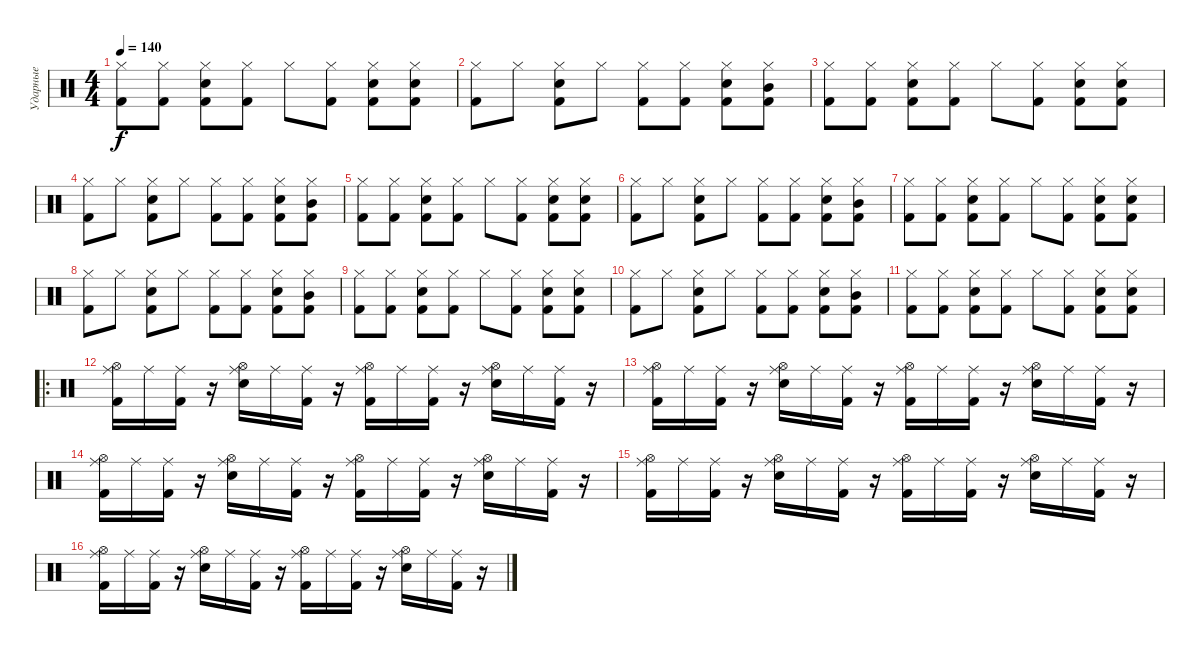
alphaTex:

\track ("Ударные" "Ударные") {instrument percussion}
\staff {score}
\articulation defaults
\ts (4 4)
\tempo 140
\clef neutral
\ks c
("Hi-Hat (closed)" "Kick (hit) 2").8{dy f} ("Hi-Hat (closed)" "Kick (hit) 2").8 ("Hi-Hat (closed)" "Kick (hit) 2" "Snare (hit) 2").8 ("Hi-Hat (closed)" "Kick (hit) 2").8 "Hi-Hat (closed)".8 ("Hi-Hat (closed)" "Kick (hit) 2").8 ("Hi-Hat (closed)" "Snare (hit) 2" "Kick (hit) 2").8 ("Snare (hit) 2" "Kick (hit) 2" "Hi-Hat (closed)").8 |
("Hi-Hat (closed)" "Kick (hit) 2").8 "Hi-Hat (closed)".8 ("Hi-Hat (closed)" "Kick (hit) 2" "Snare (hit) 2").8 "Hi-Hat (closed)".8 ("Hi-Hat (closed)" "Kick (hit) 2").8 ("Hi-Hat (closed)" "Kick (hit) 2").8 ("Hi-Hat (closed)" "Snare (hit) 2" "Kick (hit) 2").8 ("Mid Tom (hit)" "Kick (hit) 2" "Hi-Hat (closed)").8 |
("Hi-Hat (closed)" "Kick (hit) 2").8 ("Hi-Hat (closed)" "Kick (hit) 2").8 ("Hi-Hat (closed)" "Kick (hit) 2" "Snare (hit) 2").8 ("Hi-Hat (closed)" "Kick (hit) 2").8 "Hi-Hat (closed)".8 ("Hi-Hat (closed)" "Kick (hit) 2").8 ("Hi-Hat (closed)" "Snare (hit) 2" "Kick (hit) 2").8 ("Snare (hit) 2" "Kick (hit) 2" "Hi-Hat (closed)").8 |
("Hi-Hat (closed)" "Kick (hit) 2").8 "Hi-Hat (closed)".8 ("Hi-Hat (closed)" "Kick (hit) 2" "Snare (hit) 2").8 "Hi-Hat (closed)".8 ("Hi-Hat (closed)" "Kick (hit) 2").8 ("Hi-Hat (closed)" "Kick (hit) 2").8 ("Hi-Hat (closed)" "Snare (hit) 2" "Kick (hit) 2").8 ("Mid Tom (hit)" "Kick (hit) 2" "Hi-Hat (closed)").8 |
("Hi-Hat (closed)" "Kick (hit) 2").8 ("Hi-Hat (closed)" "Kick (hit) 2").8 ("Hi-Hat (closed)" "Kick (hit) 2" "Snare (hit) 2").8 ("Hi-Hat (closed)" "Kick (hit) 2").8 "Hi-Hat (closed)".8 ("Hi-Hat (closed)" "Kick (hit) 2").8 ("Hi-Hat (closed)" "Snare (hit) 2" "Kick (hit) 2").8 ("Snare (hit) 2" "Kick (hit) 2" "Hi-Hat (closed)").8 |
("Hi-Hat (closed)" "Kick (hit) 2").8 "Hi-Hat (closed)".8 ("Hi-Hat (closed)" "Kick (hit) 2" "Snare (hit) 2").8 "Hi-Hat (closed)".8 ("Hi-Hat (closed)" "Kick (hit) 2").8 ("Hi-Hat (closed)" "Kick (hit) 2").8 ("Hi-Hat (closed)" "Snare (hit) 2" "Kick (hit) 2").8 ("Mid Tom (hit)" "Kick (hit) 2" "Hi-Hat (closed)").8 |
("Hi-Hat (closed)" "Kick (hit) 2").8 ("Hi-Hat (closed)" "Kick (hit) 2").8 ("Hi-Hat (closed)" "Kick (hit) 2" "Snare (hit) 2").8 ("Hi-Hat (closed)" "Kick (hit) 2").8 "Hi-Hat (closed)".8 ("Hi-Hat (closed)" "Kick (hit) 2").8 ("Hi-Hat (closed)" "Snare (hit) 2" "Kick (hit) 2").8 ("Snare (hit) 2" "Kick (hit) 2" "Hi-Hat (closed)").8 |
("Hi-Hat (closed)" "Kick (hit) 2").8 "Hi-Hat (closed)".8 ("Hi-Hat (closed)" "Kick (hit) 2" "Snare (hit) 2").8 "Hi-Hat (closed)".8 ("Hi-Hat (closed)" "Kick (hit) 2").8 ("Hi-Hat (closed)" "Kick (hit) 2").8 ("Hi-Hat (closed)" "Snare (hit) 2" "Kick (hit) 2").8 ("Mid Tom (hit)" "Kick (hit) 2" "Hi-Hat (closed)").8 |
("Hi-Hat (closed)" "Kick (hit) 2").8 ("Hi-Hat (closed)" "Kick (hit) 2").8 ("Hi-Hat (closed)" "Kick (hit) 2" "Snare (hit) 2").8 ("Hi-Hat (closed)" "Kick (hit) 2").8 "Hi-Hat (closed)".8 ("Hi-Hat (closed)" "Kick (hit) 2").8 ("Hi-Hat (closed)" "Snare (hit) 2" "Kick (hit) 2").8 ("Snare (hit) 2" "Kick (hit) 2" "Hi-Hat (closed)").8 |
("Hi-Hat (closed)" "Kick (hit) 2").8 "Hi-Hat (closed)".8 ("Hi-Hat (closed)" "Kick (hit) 2" "Snare (hit) 2").8 "Hi-Hat (closed)".8 ("Hi-Hat (closed)" "Kick (hit) 2").8 ("Hi-Hat (closed)" "Kick (hit) 2").8 ("Hi-Hat (closed)" "Snare (hit) 2" "Kick (hit) 2").8 ("Mid Tom (hit)" "Kick (hit) 2" "Hi-Hat (closed)").8 |
("Hi-Hat (closed)" "Kick (hit) 2").8 ("Hi-Hat (closed)" "Kick (hit) 2").8 ("Hi-Hat (closed)" "Kick (hit) 2" "Snare (hit) 2").8 ("Hi-Hat (closed)" "Kick (hit) 2").8 "Hi-Hat (closed)".8 ("Hi-Hat (closed)" "Kick (hit) 2").8 ("Hi-Hat (closed)" "Snare (hit) 2" "Kick (hit) 2").8 ("Snare (hit) 2" "Kick (hit) 2" "Hi-Hat (closed)").8 |
\ro
("Kick (hit) 2" "Hi-Hat (open)" "Ride (middle)").16{volume 15} "Ride (middle)".16 ("Kick (hit) 2" "Ride (middle)").16 r.16 ("Hi-Hat (open)" "Electric Snare (hit)" "Ride (middle)").16 "Ride (middle)".16 ("Kick (hit) 2" "Ride (middle)").16 r.16 ("Kick (hit) 2" "Hi-Hat (open)" "Ride (middle)").16 "Ride (middle)".16 ("Kick (hit) 2" "Ride (middle)").16 r.16 ("Hi-Hat (open)" "Electric Snare (hit)" "Ride (middle)").16 "Ride (middle)".16 ("Kick (hit) 2" "Ride (middle)").16 r.16 |
("Kick (hit) 2" "Hi-Hat (open)" "Ride (middle)").16 "Ride (middle)".16 ("Kick (hit) 2" "Ride (middle)").16 r.16 ("Hi-Hat (open)" "Electric Snare (hit)" "Ride (middle)").16 "Ride (middle)".16 ("Kick (hit) 2" "Ride (middle)").16 r.16 ("Kick (hit) 2" "Hi-Hat (open)" "Ride (middle)").16 "Ride (middle)".16 ("Kick (hit) 2" "Ride (middle)").16 r.16 ("Hi-Hat (open)" "Electric Snare (hit)" "Ride (middle)").16 "Ride (middle)".16 ("Kick (hit) 2" "Ride (middle)").16 r.16 |
("Kick (hit) 2" "Hi-Hat (open)" "Ride (middle)").16 "Ride (middle)".16 ("Kick (hit) 2" "Ride (middle)").16 r.16 ("Hi-Hat (open)" "Electric Snare (hit)" "Ride (middle)").16 "Ride (middle)".16 ("Kick (hit) 2" "Ride (middle)").16 r.16 ("Kick (hit) 2" "Hi-Hat (open)" "Ride (middle)").16 "Ride (middle)".16 ("Kick (hit) 2" "Ride (middle)").16 r.16 ("Hi-Hat (open)" "Electric Snare (hit)" "Ride (middle)").16 "Ride (middle)".16 ("Kick (hit) 2" "Ride (middle)").16 r.16 |
("Kick (hit) 2" "Hi-Hat (open)" "Ride (middle)").16 "Ride (middle)".16 ("Kick (hit) 2" "Ride (middle)").16 r.16 ("Hi-Hat (open)" "Electric Snare (hit)" "Ride (middle)").16 "Ride (middle)".16 ("Kick (hit) 2" "Ride (middle)").16 r.16 ("Kick (hit) 2" "Hi-Hat (open)" "Ride (middle)").16 "Ride (middle)".16 ("Kick (hit) 2" "Ride (middle)").16 r.16 ("Hi-Hat (open)" "Electric Snare (hit)" "Ride (middle)").16 "Ride (middle)".16 ("Kick (hit) 2" "Ride (middle)").16 r.16 |
("Kick (hit) 2" "Hi-Hat (open)" "Ride (middle)").16 "Ride (middle)".16 ("Kick (hit) 2" "Ride (middle)").16 r.16 ("Hi-Hat (open)" "Electric Snare (hit)" "Ride (middle)").16 "Ride (middle)".16 ("Kick (hit) 2" "Ride (middle)").16 r.16 ("Kick (hit) 2" "Hi-Hat (open)" "Ride (middle)").16 "Ride (middle)".16 ("Kick (hit) 2" "Ride (middle)").16 r.16 ("Hi-Hat (open)" "Electric Snare (hit)" "Ride (middle)").16 "Ride (middle)".16 ("Kick (hit) 2" "Ride (middle)").16 r.16
